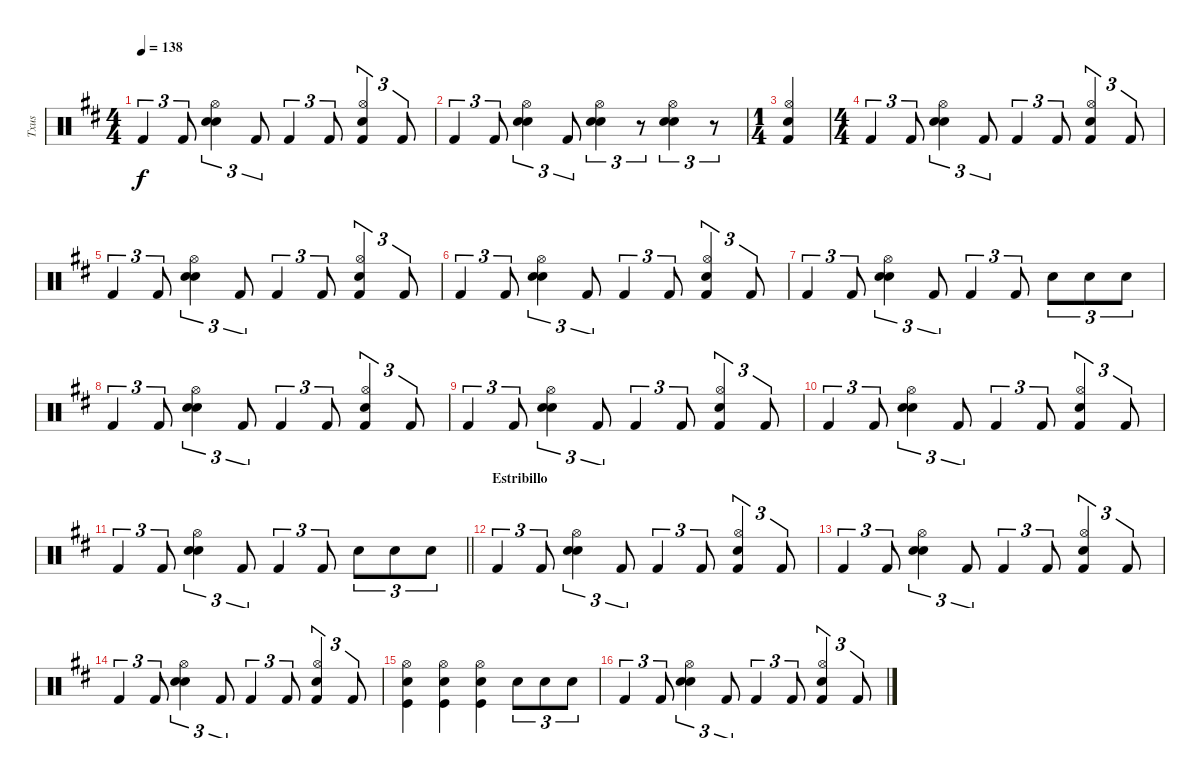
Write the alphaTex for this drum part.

\track ("Txus" "Txus") {instrument percussion}
\staff {score}
\articulation defaults
\ts (4 4)
\tempo 138
\clef neutral
\ks d "Kick (hit) 2".4{tu (3 2) dy f} "Kick (hit) 2".8{tu (3 2)}
("Hi-Hat (open)" "Electric Snare (hit)" "Snare (hit) 2").4{tu (3 2)} "Kick (hit) 2".8{tu (3 2)} "Kick (hit) 2".4{tu (3 2)} "Kick (hit) 2".8{tu (3 2)} ("Hi-Hat (open)" "Electric Snare (hit)" "Kick (hit) 2").4{tu (3 2)} "Kick (hit) 2".8{tu (3 2)} |
"Kick (hit) 2".4{tu (3 2)} "Kick (hit) 2".8{tu (3 2)} ("Hi-Hat (open)" "Electric Snare (hit)" "Snare (hit) 2").4{tu (3 2)} "Kick (hit) 2".8{tu (3 2)} ("Hi-Hat (open)" "Electric Snare (hit)" "Snare (hit) 2").4{tu (3 2)} r.8{tu (3 2)} ("Hi-Hat (open)" "Electric Snare (hit)" "Snare (hit) 2").4{tu (3 2)} r.8{tu (3 2)} |
\ts (1 4)
("Hi-Hat (open)" "Electric Snare (hit)" "Kick (hit) 2").4 |
\ts (4 4)
"Kick (hit) 2".4{tu (3 2)} "Kick (hit) 2".8{tu (3 2)} ("Hi-Hat (open)" "Electric Snare (hit)" "Snare (hit) 2").4{tu (3 2)} "Kick (hit) 2".8{tu (3 2)} "Kick (hit) 2".4{tu (3 2)} "Kick (hit) 2".8{tu (3 2)} ("Hi-Hat (open)" "Electric Snare (hit)" "Kick (hit) 2").4{tu (3 2)} "Kick (hit) 2".8{tu (3 2)} |
"Kick (hit) 2".4{tu (3 2)} "Kick (hit) 2".8{tu (3 2)} ("Hi-Hat (open)" "Electric Snare (hit)" "Snare (hit) 2").4{tu (3 2)} "Kick (hit) 2".8{tu (3 2)} "Kick (hit) 2".4{tu (3 2)} "Kick (hit) 2".8{tu (3 2)} ("Hi-Hat (open)" "Electric Snare (hit)" "Kick (hit) 2").4{tu (3 2)} "Kick (hit) 2".8{tu (3 2)} |
"Kick (hit) 2".4{tu (3 2)} "Kick (hit) 2".8{tu (3 2)} ("Hi-Hat (open)" "Electric Snare (hit)" "Snare (hit) 2").4{tu (3 2)} "Kick (hit) 2".8{tu (3 2)} "Kick (hit) 2".4{tu (3 2)} "Kick (hit) 2".8{tu (3 2)} ("Hi-Hat (open)" "Electric Snare (hit)" "Kick (hit) 2").4{tu (3 2)} "Kick (hit) 2".8{tu (3 2)} |
"Kick (hit) 2".4{tu (3 2)} "Kick (hit) 2".8{tu (3 2)} ("Hi-Hat (open)" "Electric Snare (hit)" "Snare (hit) 2").4{tu (3 2)} "Kick (hit) 2".8{tu (3 2)} "Kick (hit) 2".4{tu (3 2)} "Kick (hit) 2".8{tu (3 2)} "Electric Snare (hit)".8{tu (3 2)} "Electric Snare (hit)".8{tu (3 2)} "Electric Snare (hit)".8{tu (3 2)} |
"Kick (hit) 2".4{tu (3 2)} "Kick (hit) 2".8{tu (3 2)} ("Hi-Hat (open)" "Electric Snare (hit)" "Snare (hit) 2").4{tu (3 2)} "Kick (hit) 2".8{tu (3 2)} "Kick (hit) 2".4{tu (3 2)} "Kick (hit) 2".8{tu (3 2)} ("Hi-Hat (open)" "Electric Snare (hit)" "Kick (hit) 2").4{tu (3 2)} "Kick (hit) 2".8{tu (3 2)} |
"Kick (hit) 2".4{tu (3 2)} "Kick (hit) 2".8{tu (3 2)} ("Hi-Hat (open)" "Electric Snare (hit)" "Snare (hit) 2").4{tu (3 2)} "Kick (hit) 2".8{tu (3 2)} "Kick (hit) 2".4{tu (3 2)} "Kick (hit) 2".8{tu (3 2)} ("Hi-Hat (open)" "Electric Snare (hit)" "Kick (hit) 2").4{tu (3 2)} "Kick (hit) 2".8{tu (3 2)} |
"Kick (hit) 2".4{tu (3 2)} "Kick (hit) 2".8{tu (3 2)} ("Hi-Hat (open)" "Electric Snare (hit)" "Snare (hit) 2").4{tu (3 2)} "Kick (hit) 2".8{tu (3 2)} "Kick (hit) 2".4{tu (3 2)} "Kick (hit) 2".8{tu (3 2)} ("Hi-Hat (open)" "Electric Snare (hit)" "Kick (hit) 2").4{tu (3 2)} "Kick (hit) 2".8{tu (3 2)} |
\barLineRight lightlight "Kick (hit) 2".4{tu (3 2)} "Kick (hit) 2".8{tu (3 2)}
("Hi-Hat (open)" "Electric Snare (hit)" "Snare (hit) 2").4{tu (3 2)} "Kick (hit) 2".8{tu (3 2)} "Kick (hit) 2".4{tu (3 2)} "Kick (hit) 2".8{tu (3 2)} "Electric Snare (hit)".8{tu (3 2)} "Electric Snare (hit)".8{tu (3 2)} "Electric Snare (hit)".8{tu (3 2)} |
\section ("" "Estribillo")
"Kick (hit) 2".4{tu (3 2)} "Kick (hit) 2".8{tu (3 2)} ("Hi-Hat (open)" "Electric Snare (hit)" "Snare (hit) 2").4{tu (3 2)} "Kick (hit) 2".8{tu (3 2)} "Kick (hit) 2".4{tu (3 2)} "Kick (hit) 2".8{tu (3 2)} ("Hi-Hat (open)" "Electric Snare (hit)" "Kick (hit) 2").4{tu (3 2)} "Kick (hit) 2".8{tu (3 2)} |
"Kick (hit) 2".4{tu (3 2)} "Kick (hit) 2".8{tu (3 2)} ("Hi-Hat (open)" "Electric Snare (hit)" "Snare (hit) 2").4{tu (3 2)} "Kick (hit) 2".8{tu (3 2)} "Kick (hit) 2".4{tu (3 2)} "Kick (hit) 2".8{tu (3 2)} ("Hi-Hat (open)" "Electric Snare (hit)" "Kick (hit) 2").4{tu (3 2)} "Kick (hit) 2".8{tu (3 2)} |
"Kick (hit) 2".4{tu (3 2)} "Kick (hit) 2".8{tu (3 2)} ("Hi-Hat (open)" "Electric Snare (hit)" "Snare (hit) 2").4{tu (3 2)} "Kick (hit) 2".8{tu (3 2)} "Kick (hit) 2".4{tu (3 2)} "Kick (hit) 2".8{tu (3 2)} ("Hi-Hat (open)" "Electric Snare (hit)" "Kick (hit) 2").4{tu (3 2)} "Kick (hit) 2".8{tu (3 2)} |
("Hi-Hat (open)" "Electric Snare (hit)" "Kick (hit)").4 ("Hi-Hat (open)" "Electric Snare (hit)" "Kick (hit)").4 ("Hi-Hat (open)" "Electric Snare (hit)" "Kick (hit)").4 "Electric Snare (hit)".8{tu (3 2)} "Electric Snare (hit)".8{tu (3 2)} "Electric Snare (hit)".8{tu (3 2)} |
"Kick (hit) 2".4{tu (3 2)} "Kick (hit) 2".8{tu (3 2)} ("Hi-Hat (open)" "Electric Snare (hit)" "Snare (hit) 2").4{tu (3 2)} "Kick (hit) 2".8{tu (3 2)} "Kick (hit) 2".4{tu (3 2)} "Kick (hit) 2".8{tu (3 2)} ("Hi-Hat (open)" "Electric Snare (hit)" "Kick (hit) 2").4{tu (3 2)} "Kick (hit) 2".8{tu (3 2)}
